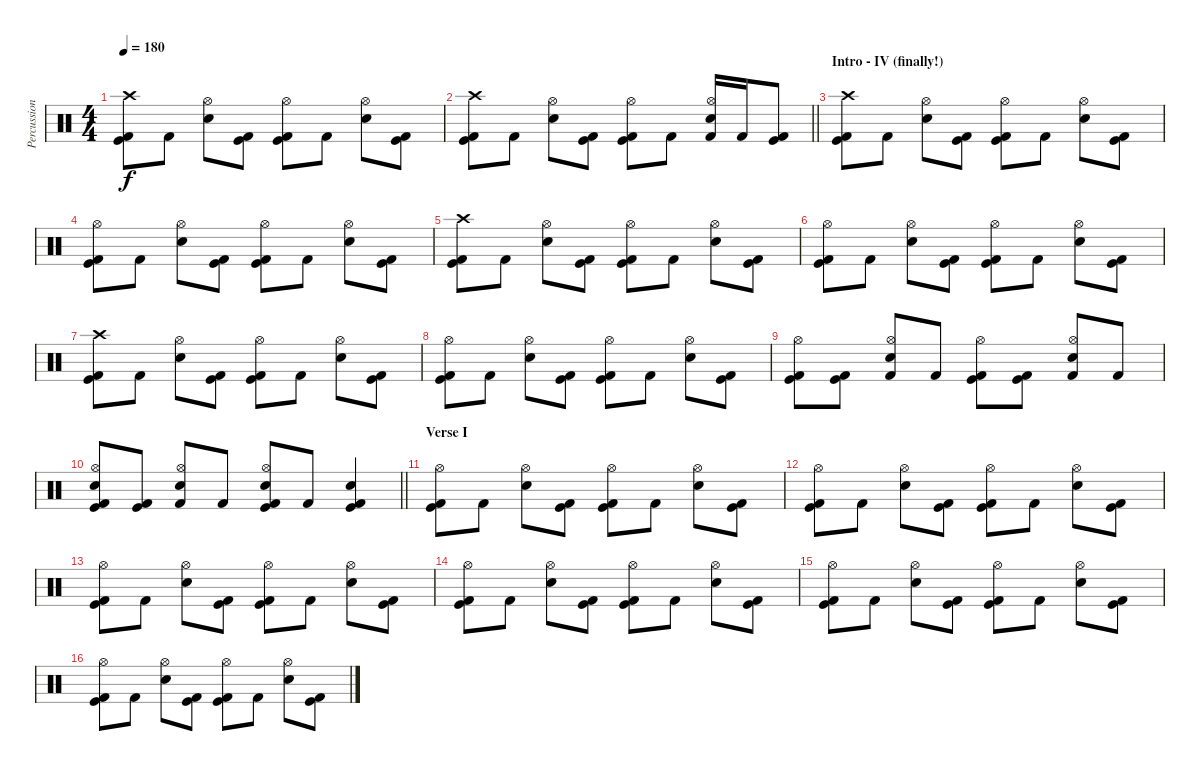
\track ("Percussion" "Percussion") {instrument percussion}
\staff {score}
\articulation defaults
\ts (4 4)
\tempo 180
\clef neutral
\ks c
("Crash high (hit)" "Kick (hit)" "Kick (hit) 2").8{dy f} "Kick (hit) 2".8 ("Hi-Hat (open)" "Snare (hit) 2").8 ("Kick (hit)" "Kick (hit) 2").8 ("Hi-Hat (open)" "Kick (hit)" "Kick (hit) 2").8 "Kick (hit) 2".8 ("Hi-Hat (open)" "Snare (hit) 2").8 ("Kick (hit)" "Kick (hit) 2").8 |
\barLineRight lightlight
("Crash high (hit)" "Kick (hit)" "Kick (hit) 2").8 "Kick (hit) 2".8 ("Hi-Hat (open)" "Snare (hit) 2").8 ("Kick (hit)" "Kick (hit) 2").8 ("Hi-Hat (open)" "Kick (hit)" "Kick (hit) 2").8 "Kick (hit) 2".8 ("Hi-Hat (open)" "Snare (hit) 2" "Kick (hit) 2").16 "Kick (hit) 2".16 ("Kick (hit)" "Kick (hit) 2").8 |
\section ("" "Intro - IV (finally!)")
("Crash high (hit)" "Kick (hit)" "Kick (hit) 2").8 "Kick (hit) 2".8 ("Hi-Hat (open)" "Snare (hit) 2").8 ("Kick (hit)" "Kick (hit) 2").8 ("Hi-Hat (open)" "Kick (hit)" "Kick (hit) 2").8 "Kick (hit) 2".8 ("Hi-Hat (open)" "Snare (hit) 2").8 ("Kick (hit)" "Kick (hit) 2").8 |
("Hi-Hat (open)" "Kick (hit)" "Kick (hit) 2").8 "Kick (hit) 2".8 ("Hi-Hat (open)" "Snare (hit) 2").8 ("Kick (hit)" "Kick (hit) 2").8 ("Hi-Hat (open)" "Kick (hit)" "Kick (hit) 2").8 "Kick (hit) 2".8 ("Hi-Hat (open)" "Snare (hit) 2").8 ("Kick (hit)" "Kick (hit) 2").8 |
("Crash high (hit)" "Kick (hit)" "Kick (hit) 2").8 "Kick (hit) 2".8 ("Hi-Hat (open)" "Snare (hit) 2").8 ("Kick (hit)" "Kick (hit) 2").8 ("Hi-Hat (open)" "Kick (hit)" "Kick (hit) 2").8 "Kick (hit) 2".8 ("Hi-Hat (open)" "Snare (hit) 2").8 ("Kick (hit)" "Kick (hit) 2").8 |
("Hi-Hat (open)" "Kick (hit)" "Kick (hit) 2").8 "Kick (hit) 2".8 ("Hi-Hat (open)" "Snare (hit) 2").8 ("Kick (hit)" "Kick (hit) 2").8 ("Hi-Hat (open)" "Kick (hit)" "Kick (hit) 2").8 "Kick (hit) 2".8 ("Hi-Hat (open)" "Snare (hit) 2").8 ("Kick (hit)" "Kick (hit) 2").8 |
("Crash high (hit)" "Kick (hit)" "Kick (hit) 2").8 "Kick (hit) 2".8 ("Hi-Hat (open)" "Snare (hit) 2").8 ("Kick (hit)" "Kick (hit) 2").8 ("Hi-Hat (open)" "Kick (hit)" "Kick (hit) 2").8 "Kick (hit) 2".8 ("Hi-Hat (open)" "Snare (hit) 2").8 ("Kick (hit)" "Kick (hit) 2").8 |
("Hi-Hat (open)" "Kick (hit)" "Kick (hit) 2").8 "Kick (hit) 2".8 ("Hi-Hat (open)" "Snare (hit) 2").8 ("Kick (hit)" "Kick (hit) 2").8 ("Hi-Hat (open)" "Kick (hit)" "Kick (hit) 2").8 "Kick (hit) 2".8 ("Hi-Hat (open)" "Snare (hit) 2").8 ("Kick (hit)" "Kick (hit) 2").8 |
("Hi-Hat (open)" "Kick (hit)" "Kick (hit) 2").8 ("Kick (hit)" "Kick (hit) 2").8 ("Hi-Hat (open)" "Snare (hit) 2" "Kick (hit) 2").8 "Kick (hit) 2".8 ("Hi-Hat (open)" "Kick (hit)" "Kick (hit) 2").8 ("Kick (hit)" "Kick (hit) 2").8 ("Hi-Hat (open)" "Snare (hit) 2" "Kick (hit) 2").8 "Kick (hit) 2".8 |
\barLineRight lightlight
("Hi-Hat (open)" "Electric Snare (hit)" "Kick (hit)" "Kick (hit) 2").8 ("Kick (hit)" "Kick (hit) 2").8 ("Hi-Hat (open)" "Electric Snare (hit)" "Kick (hit) 2").8 "Kick (hit) 2".8 ("Hi-Hat (open)" "Electric Snare (hit)" "Kick (hit)" "Kick (hit) 2").8 "Kick (hit) 2".8 ("Snare (hit) 2" "Kick (hit)" "Kick (hit) 2").4 |
\section ("" "Verse I")
("Hi-Hat (open)" "Kick (hit)" "Kick (hit) 2").8 "Kick (hit) 2".8 ("Hi-Hat (open)" "Snare (hit) 2").8 ("Kick (hit)" "Kick (hit) 2").8 ("Hi-Hat (open)" "Kick (hit)" "Kick (hit) 2").8 "Kick (hit) 2".8 ("Hi-Hat (open)" "Snare (hit) 2").8 ("Kick (hit)" "Kick (hit) 2").8 |
("Hi-Hat (open)" "Kick (hit)" "Kick (hit) 2").8 "Kick (hit) 2".8 ("Hi-Hat (open)" "Snare (hit) 2").8 ("Kick (hit)" "Kick (hit) 2").8 ("Hi-Hat (open)" "Kick (hit)" "Kick (hit) 2").8 "Kick (hit) 2".8 ("Hi-Hat (open)" "Snare (hit) 2").8 ("Kick (hit)" "Kick (hit) 2").8 |
("Hi-Hat (open)" "Kick (hit)" "Kick (hit) 2").8 "Kick (hit) 2".8 ("Hi-Hat (open)" "Snare (hit) 2").8 ("Kick (hit)" "Kick (hit) 2").8 ("Hi-Hat (open)" "Kick (hit)" "Kick (hit) 2").8 "Kick (hit) 2".8 ("Hi-Hat (open)" "Snare (hit) 2").8 ("Kick (hit)" "Kick (hit) 2").8 |
("Hi-Hat (open)" "Kick (hit)" "Kick (hit) 2").8 "Kick (hit) 2".8 ("Hi-Hat (open)" "Snare (hit) 2").8 ("Kick (hit)" "Kick (hit) 2").8 ("Hi-Hat (open)" "Kick (hit)" "Kick (hit) 2").8 "Kick (hit) 2".8 ("Hi-Hat (open)" "Snare (hit) 2").8 ("Kick (hit)" "Kick (hit) 2").8 |
("Hi-Hat (open)" "Kick (hit)" "Kick (hit) 2").8 "Kick (hit) 2".8 ("Hi-Hat (open)" "Snare (hit) 2").8 ("Kick (hit)" "Kick (hit) 2").8 ("Hi-Hat (open)" "Kick (hit)" "Kick (hit) 2").8 "Kick (hit) 2".8 ("Hi-Hat (open)" "Snare (hit) 2").8 ("Kick (hit)" "Kick (hit) 2").8 |
("Hi-Hat (open)" "Kick (hit)" "Kick (hit) 2").8 "Kick (hit) 2".8 ("Hi-Hat (open)" "Snare (hit) 2").8 ("Kick (hit)" "Kick (hit) 2").8 ("Hi-Hat (open)" "Kick (hit)" "Kick (hit) 2").8 "Kick (hit) 2".8 ("Hi-Hat (open)" "Snare (hit) 2").8 ("Kick (hit)" "Kick (hit) 2").8
